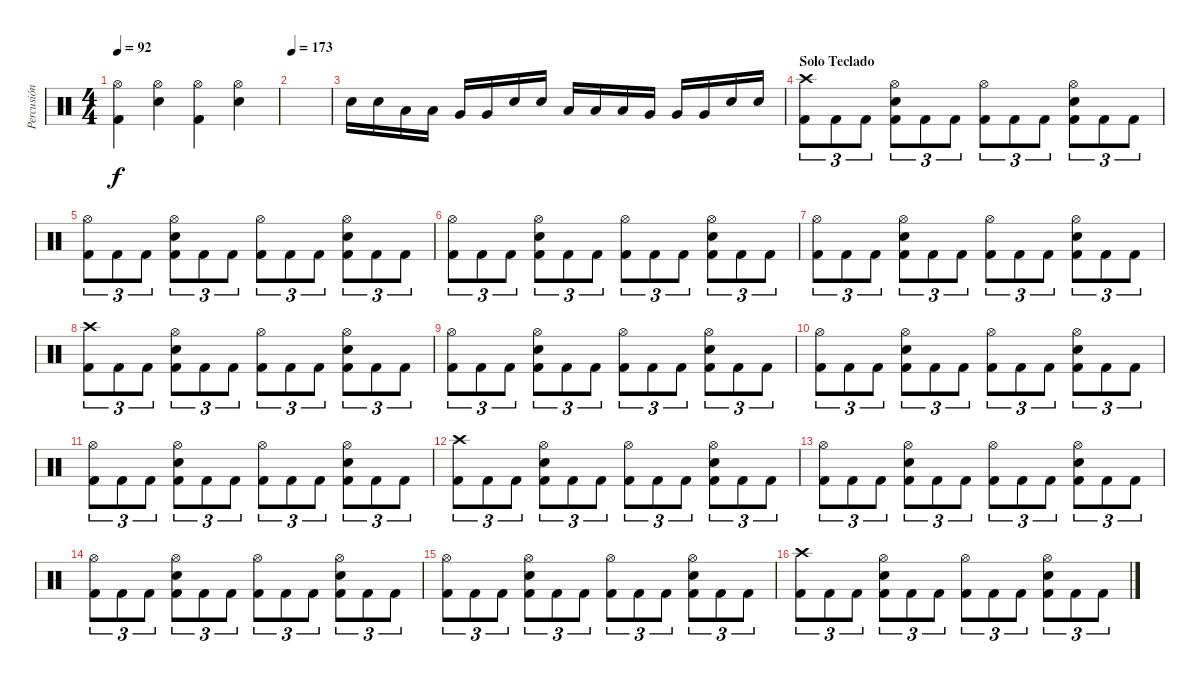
\track ("Percusión" "Percusión") {instrument percussion}
\staff {score}
\articulation defaults
\ts (4 4)
\tempo 92
\clef neutral
\ks c
("Hi-Hat (open)" "Kick (hit) 2").4{dy f} ("Hi-Hat (open)" "Snare (hit) 2").4 ("Hi-Hat (open)" "Kick (hit) 2").4 ("Hi-Hat (open)" "Snare (hit) 2").4 |
\tempo 173
|
"Snare (hit) 2".16 "Snare (hit) 2".16 "Low Tom (hit)".16 "Low Tom (hit)".16 "Very Low Tom (hit)".16 "Very Low Tom (hit)".16 "Snare (hit) 2".16 "Snare (hit) 2".16 "Low Tom (hit)".16 "Low Tom (hit)".16 "Low Tom (hit)".16 "Very Low Tom (hit)".16 "Very Low Tom (hit)".16 "Very Low Tom (hit)".16 "Snare (hit) 2".16 "Snare (hit) 2".16 |
\section ("" "Solo Teclado")
("Crash high (hit)" "Kick (hit) 2").8{tu (3 2)} "Kick (hit) 2".8{tu (3 2)} "Kick (hit) 2".8{tu (3 2)} ("Hi-Hat (open)" "Snare (hit) 2" "Kick (hit) 2").8{tu (3 2)} "Kick (hit) 2".8{tu (3 2)} "Kick (hit) 2".8{tu (3 2)} ("Hi-Hat (open)" "Kick (hit) 2").8{tu (3 2)} "Kick (hit) 2".8{tu (3 2)} "Kick (hit) 2".8{tu (3 2)} ("Hi-Hat (open)" "Snare (hit) 2" "Kick (hit) 2").8{tu (3 2)} "Kick (hit) 2".8{tu (3 2)} "Kick (hit) 2".8{tu (3 2)} |
("Hi-Hat (open)" "Kick (hit) 2").8{tu (3 2)} "Kick (hit) 2".8{tu (3 2)} "Kick (hit) 2".8{tu (3 2)} ("Hi-Hat (open)" "Snare (hit) 2" "Kick (hit) 2").8{tu (3 2)} "Kick (hit) 2".8{tu (3 2)} "Kick (hit) 2".8{tu (3 2)} ("Hi-Hat (open)" "Kick (hit) 2").8{tu (3 2)} "Kick (hit) 2".8{tu (3 2)} "Kick (hit) 2".8{tu (3 2)} ("Hi-Hat (open)" "Snare (hit) 2" "Kick (hit) 2").8{tu (3 2)} "Kick (hit) 2".8{tu (3 2)} "Kick (hit) 2".8{tu (3 2)} |
("Hi-Hat (open)" "Kick (hit) 2").8{tu (3 2)} "Kick (hit) 2".8{tu (3 2)} "Kick (hit) 2".8{tu (3 2)} ("Hi-Hat (open)" "Snare (hit) 2" "Kick (hit) 2").8{tu (3 2)} "Kick (hit) 2".8{tu (3 2)} "Kick (hit) 2".8{tu (3 2)} ("Hi-Hat (open)" "Kick (hit) 2").8{tu (3 2)} "Kick (hit) 2".8{tu (3 2)} "Kick (hit) 2".8{tu (3 2)} ("Hi-Hat (open)" "Snare (hit) 2" "Kick (hit) 2").8{tu (3 2)} "Kick (hit) 2".8{tu (3 2)} "Kick (hit) 2".8{tu (3 2)} |
("Hi-Hat (open)" "Kick (hit) 2").8{tu (3 2)} "Kick (hit) 2".8{tu (3 2)} "Kick (hit) 2".8{tu (3 2)} ("Hi-Hat (open)" "Snare (hit) 2" "Kick (hit) 2").8{tu (3 2)} "Kick (hit) 2".8{tu (3 2)} "Kick (hit) 2".8{tu (3 2)} ("Hi-Hat (open)" "Kick (hit) 2").8{tu (3 2)} "Kick (hit) 2".8{tu (3 2)} "Kick (hit) 2".8{tu (3 2)} ("Hi-Hat (open)" "Snare (hit) 2" "Kick (hit) 2").8{tu (3 2)} "Kick (hit) 2".8{tu (3 2)} "Kick (hit) 2".8{tu (3 2)} |
("Crash high (hit)" "Kick (hit) 2").8{tu (3 2)} "Kick (hit) 2".8{tu (3 2)} "Kick (hit) 2".8{tu (3 2)} ("Hi-Hat (open)" "Snare (hit) 2" "Kick (hit) 2").8{tu (3 2)} "Kick (hit) 2".8{tu (3 2)} "Kick (hit) 2".8{tu (3 2)} ("Hi-Hat (open)" "Kick (hit) 2").8{tu (3 2)} "Kick (hit) 2".8{tu (3 2)} "Kick (hit) 2".8{tu (3 2)} ("Hi-Hat (open)" "Snare (hit) 2" "Kick (hit) 2").8{tu (3 2)} "Kick (hit) 2".8{tu (3 2)} "Kick (hit) 2".8{tu (3 2)} |
("Hi-Hat (open)" "Kick (hit) 2").8{tu (3 2)} "Kick (hit) 2".8{tu (3 2)} "Kick (hit) 2".8{tu (3 2)} ("Hi-Hat (open)" "Snare (hit) 2" "Kick (hit) 2").8{tu (3 2)} "Kick (hit) 2".8{tu (3 2)} "Kick (hit) 2".8{tu (3 2)} ("Hi-Hat (open)" "Kick (hit) 2").8{tu (3 2)} "Kick (hit) 2".8{tu (3 2)} "Kick (hit) 2".8{tu (3 2)} ("Hi-Hat (open)" "Snare (hit) 2" "Kick (hit) 2").8{tu (3 2)} "Kick (hit) 2".8{tu (3 2)} "Kick (hit) 2".8{tu (3 2)} |
("Hi-Hat (open)" "Kick (hit) 2").8{tu (3 2)} "Kick (hit) 2".8{tu (3 2)} "Kick (hit) 2".8{tu (3 2)} ("Hi-Hat (open)" "Snare (hit) 2" "Kick (hit) 2").8{tu (3 2)} "Kick (hit) 2".8{tu (3 2)} "Kick (hit) 2".8{tu (3 2)} ("Hi-Hat (open)" "Kick (hit) 2").8{tu (3 2)} "Kick (hit) 2".8{tu (3 2)} "Kick (hit) 2".8{tu (3 2)} ("Hi-Hat (open)" "Snare (hit) 2" "Kick (hit) 2").8{tu (3 2)} "Kick (hit) 2".8{tu (3 2)} "Kick (hit) 2".8{tu (3 2)} |
("Hi-Hat (open)" "Kick (hit) 2").8{tu (3 2)} "Kick (hit) 2".8{tu (3 2)} "Kick (hit) 2".8{tu (3 2)} ("Hi-Hat (open)" "Snare (hit) 2" "Kick (hit) 2").8{tu (3 2)} "Kick (hit) 2".8{tu (3 2)} "Kick (hit) 2".8{tu (3 2)} ("Hi-Hat (open)" "Kick (hit) 2").8{tu (3 2)} "Kick (hit) 2".8{tu (3 2)} "Kick (hit) 2".8{tu (3 2)} ("Hi-Hat (open)" "Snare (hit) 2" "Kick (hit) 2").8{tu (3 2)} "Kick (hit) 2".8{tu (3 2)} "Kick (hit) 2".8{tu (3 2)} |
("Crash high (hit)" "Kick (hit) 2").8{tu (3 2)} "Kick (hit) 2".8{tu (3 2)} "Kick (hit) 2".8{tu (3 2)} ("Hi-Hat (open)" "Snare (hit) 2" "Kick (hit) 2").8{tu (3 2)} "Kick (hit) 2".8{tu (3 2)} "Kick (hit) 2".8{tu (3 2)} ("Hi-Hat (open)" "Kick (hit) 2").8{tu (3 2)} "Kick (hit) 2".8{tu (3 2)} "Kick (hit) 2".8{tu (3 2)} ("Hi-Hat (open)" "Snare (hit) 2" "Kick (hit) 2").8{tu (3 2)} "Kick (hit) 2".8{tu (3 2)} "Kick (hit) 2".8{tu (3 2)} |
("Hi-Hat (open)" "Kick (hit) 2").8{tu (3 2)} "Kick (hit) 2".8{tu (3 2)} "Kick (hit) 2".8{tu (3 2)} ("Hi-Hat (open)" "Snare (hit) 2" "Kick (hit) 2").8{tu (3 2)} "Kick (hit) 2".8{tu (3 2)} "Kick (hit) 2".8{tu (3 2)} ("Hi-Hat (open)" "Kick (hit) 2").8{tu (3 2)} "Kick (hit) 2".8{tu (3 2)} "Kick (hit) 2".8{tu (3 2)} ("Hi-Hat (open)" "Snare (hit) 2" "Kick (hit) 2").8{tu (3 2)} "Kick (hit) 2".8{tu (3 2)} "Kick (hit) 2".8{tu (3 2)} |
("Hi-Hat (open)" "Kick (hit) 2").8{tu (3 2)} "Kick (hit) 2".8{tu (3 2)} "Kick (hit) 2".8{tu (3 2)} ("Hi-Hat (open)" "Snare (hit) 2" "Kick (hit) 2").8{tu (3 2)} "Kick (hit) 2".8{tu (3 2)} "Kick (hit) 2".8{tu (3 2)} ("Hi-Hat (open)" "Kick (hit) 2").8{tu (3 2)} "Kick (hit) 2".8{tu (3 2)} "Kick (hit) 2".8{tu (3 2)} ("Hi-Hat (open)" "Snare (hit) 2" "Kick (hit) 2").8{tu (3 2)} "Kick (hit) 2".8{tu (3 2)} "Kick (hit) 2".8{tu (3 2)} |
("Hi-Hat (open)" "Kick (hit) 2").8{tu (3 2)} "Kick (hit) 2".8{tu (3 2)} "Kick (hit) 2".8{tu (3 2)} ("Hi-Hat (open)" "Snare (hit) 2" "Kick (hit) 2").8{tu (3 2)} "Kick (hit) 2".8{tu (3 2)} "Kick (hit) 2".8{tu (3 2)} ("Hi-Hat (open)" "Kick (hit) 2").8{tu (3 2)} "Kick (hit) 2".8{tu (3 2)} "Kick (hit) 2".8{tu (3 2)} ("Hi-Hat (open)" "Snare (hit) 2" "Kick (hit) 2").8{tu (3 2)} "Kick (hit) 2".8{tu (3 2)} "Kick (hit) 2".8{tu (3 2)} |
("Crash high (hit)" "Kick (hit) 2").8{tu (3 2)} "Kick (hit) 2".8{tu (3 2)} "Kick (hit) 2".8{tu (3 2)} ("Hi-Hat (open)" "Snare (hit) 2" "Kick (hit) 2").8{tu (3 2)} "Kick (hit) 2".8{tu (3 2)} "Kick (hit) 2".8{tu (3 2)} ("Hi-Hat (open)" "Kick (hit) 2").8{tu (3 2)} "Kick (hit) 2".8{tu (3 2)} "Kick (hit) 2".8{tu (3 2)} ("Hi-Hat (open)" "Snare (hit) 2" "Kick (hit) 2").8{tu (3 2)} "Kick (hit) 2".8{tu (3 2)} "Kick (hit) 2".8{tu (3 2)}
